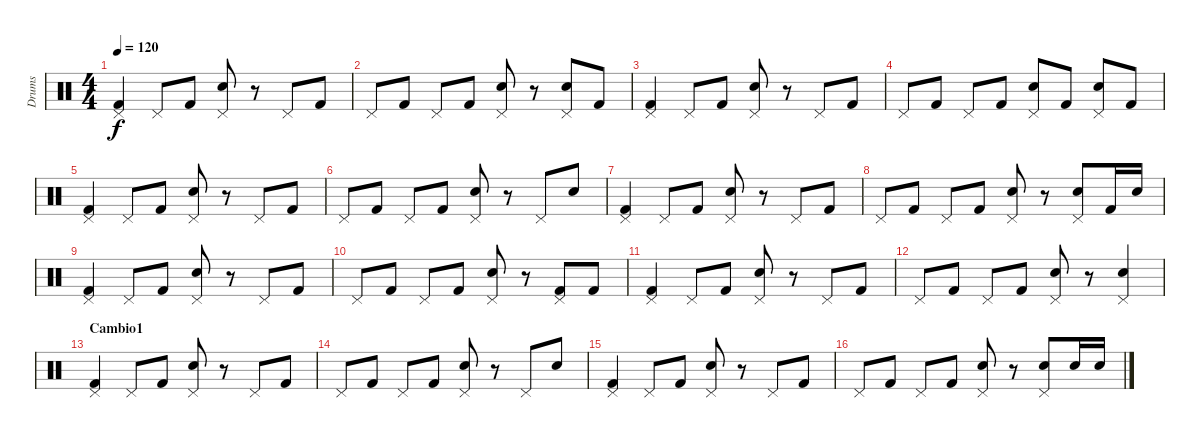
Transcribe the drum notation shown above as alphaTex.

\track ("Drums" "Drums") {instrument percussion}
\staff {score}
\articulation defaults
\ts (4 4)
\tempo 120
\clef neutral
\ks c
("Pedal Hi-Hat (hit)" "Kick (hit) 2").4{dy f} "Pedal Hi-Hat (hit)".8 "Kick (hit) 2".8 ("Electric Snare (hit)" "Pedal Hi-Hat (hit)").8 r.8 "Pedal Hi-Hat (hit)".8 "Kick (hit) 2".8 |
"Pedal Hi-Hat (hit)".8 "Kick (hit) 2".8 "Pedal Hi-Hat (hit)".8 "Kick (hit) 2".8 ("Electric Snare (hit)" "Pedal Hi-Hat (hit)").8 r.8 ("Electric Snare (hit)" "Pedal Hi-Hat (hit)").8 "Kick (hit) 2".8 |
("Pedal Hi-Hat (hit)" "Kick (hit) 2").4 "Pedal Hi-Hat (hit)".8 "Kick (hit) 2".8 ("Electric Snare (hit)" "Pedal Hi-Hat (hit)").8 r.8 "Pedal Hi-Hat (hit)".8 "Kick (hit) 2".8 |
"Pedal Hi-Hat (hit)".8 "Kick (hit) 2".8 "Pedal Hi-Hat (hit)".8 "Kick (hit) 2".8 ("Electric Snare (hit)" "Pedal Hi-Hat (hit)").8 "Kick (hit) 2".8 ("Electric Snare (hit)" "Pedal Hi-Hat (hit)").8 "Kick (hit) 2".8 |
("Pedal Hi-Hat (hit)" "Kick (hit) 2").4 "Pedal Hi-Hat (hit)".8 "Kick (hit) 2".8 ("Electric Snare (hit)" "Pedal Hi-Hat (hit)").8 r.8 "Pedal Hi-Hat (hit)".8 "Kick (hit) 2".8 |
"Pedal Hi-Hat (hit)".8 "Kick (hit) 2".8 "Pedal Hi-Hat (hit)".8 "Kick (hit) 2".8 ("Electric Snare (hit)" "Pedal Hi-Hat (hit)").8 r.8 "Pedal Hi-Hat (hit)".8 "Electric Snare (hit)".8 |
("Pedal Hi-Hat (hit)" "Kick (hit) 2").4 "Pedal Hi-Hat (hit)".8 "Kick (hit) 2".8 ("Electric Snare (hit)" "Pedal Hi-Hat (hit)").8 r.8 "Pedal Hi-Hat (hit)".8 "Kick (hit) 2".8 |
"Pedal Hi-Hat (hit)".8 "Kick (hit) 2".8 "Pedal Hi-Hat (hit)".8 "Kick (hit) 2".8 ("Electric Snare (hit)" "Pedal Hi-Hat (hit)").8 r.8 ("Electric Snare (hit)" "Pedal Hi-Hat (hit)").8 "Kick (hit) 2".16 "Electric Snare (hit)".16 |
("Pedal Hi-Hat (hit)" "Kick (hit) 2").4 "Pedal Hi-Hat (hit)".8 "Kick (hit) 2".8 ("Electric Snare (hit)" "Pedal Hi-Hat (hit)").8 r.8 "Pedal Hi-Hat (hit)".8 "Kick (hit) 2".8 |
"Pedal Hi-Hat (hit)".8 "Kick (hit) 2".8 "Pedal Hi-Hat (hit)".8 "Kick (hit) 2".8 ("Electric Snare (hit)" "Pedal Hi-Hat (hit)").8 r.8 ("Pedal Hi-Hat (hit)" "Kick (hit) 2").8 "Kick (hit) 2".8 |
("Pedal Hi-Hat (hit)" "Kick (hit) 2").4 "Pedal Hi-Hat (hit)".8 "Kick (hit) 2".8 ("Electric Snare (hit)" "Pedal Hi-Hat (hit)").8 r.8 "Pedal Hi-Hat (hit)".8 "Kick (hit) 2".8 |
"Pedal Hi-Hat (hit)".8 "Kick (hit) 2".8 "Pedal Hi-Hat (hit)".8 "Kick (hit) 2".8 ("Electric Snare (hit)" "Pedal Hi-Hat (hit)").8 r.8 ("Electric Snare (hit)" "Pedal Hi-Hat (hit)").4 |
\section ("" "Cambio1")
("Pedal Hi-Hat (hit)" "Kick (hit) 2").4 "Pedal Hi-Hat (hit)".8 "Kick (hit) 2".8 ("Electric Snare (hit)" "Pedal Hi-Hat (hit)").8 r.8 "Pedal Hi-Hat (hit)".8 "Kick (hit) 2".8 |
"Pedal Hi-Hat (hit)".8 "Kick (hit) 2".8 "Pedal Hi-Hat (hit)".8 "Kick (hit) 2".8 ("Electric Snare (hit)" "Pedal Hi-Hat (hit)").8 r.8 "Pedal Hi-Hat (hit)".8 "Electric Snare (hit)".8 |
("Pedal Hi-Hat (hit)" "Kick (hit) 2").4 "Pedal Hi-Hat (hit)".8 "Kick (hit) 2".8 ("Electric Snare (hit)" "Pedal Hi-Hat (hit)").8 r.8 "Pedal Hi-Hat (hit)".8 "Kick (hit) 2".8 |
"Pedal Hi-Hat (hit)".8 "Kick (hit) 2".8 "Pedal Hi-Hat (hit)".8 "Kick (hit) 2".8 ("Electric Snare (hit)" "Pedal Hi-Hat (hit)").8 r.8 ("Electric Snare (hit)" "Pedal Hi-Hat (hit)").8 "Electric Snare (hit)".16 "Electric Snare (hit)".16
